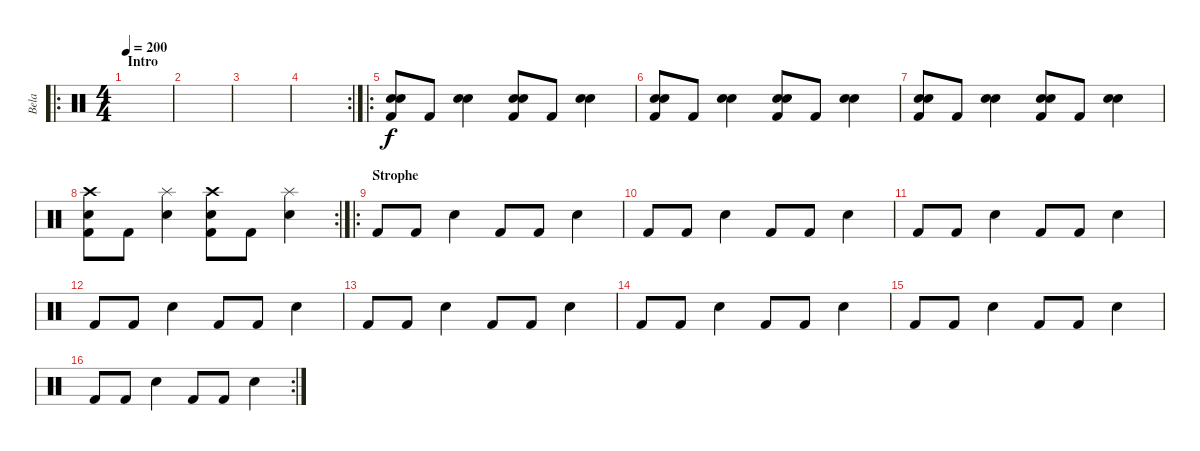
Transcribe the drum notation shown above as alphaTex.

\track ("Bela" "Bela") {instrument percussion}
\staff {score}
\articulation defaults
\ro
\ts (4 4)
\section ("" "Intro")
\tempo 200
\clef neutral
\ks c
|
|
|
\rc 2
|
\ro
("Electric Snare (hit)" "Snare (hit) 2" "Kick (hit) 2").8 "Kick (hit) 2".8 ("Electric Snare (hit)" "Snare (hit) 2").4 ("Electric Snare (hit)" "Snare (hit) 2" "Kick (hit) 2").8 "Kick (hit) 2".8 ("Electric Snare (hit)" "Snare (hit) 2").4 |
("Electric Snare (hit)" "Snare (hit) 2" "Kick (hit) 2").8 "Kick (hit) 2".8 ("Electric Snare (hit)" "Snare (hit) 2").4 ("Electric Snare (hit)" "Snare (hit) 2" "Kick (hit) 2").8 "Kick (hit) 2".8 ("Electric Snare (hit)" "Snare (hit) 2").4 |
("Electric Snare (hit)" "Snare (hit) 2" "Kick (hit) 2").8 "Kick (hit) 2".8 ("Electric Snare (hit)" "Snare (hit) 2").4 ("Electric Snare (hit)" "Snare (hit) 2" "Kick (hit) 2").8 "Kick (hit) 2".8 ("Electric Snare (hit)" "Snare (hit) 2").4 |
\rc 2
("Crash high (hit)" "Electric Snare (hit)" "Kick (hit) 2").8 "Kick (hit) 2".8 ("Splash (hit)" "Electric Snare (hit)").4 ("Crash high (hit)" "Electric Snare (hit)" "Kick (hit) 2").8 "Kick (hit) 2".8 ("Splash (hit)" "Electric Snare (hit)").4 |
\ro
\section ("" "Strophe")
"Kick (hit) 2".8 "Kick (hit) 2".8 "Snare (hit) 2".4 "Kick (hit) 2".8 "Kick (hit) 2".8 "Snare (hit) 2".4 |
"Kick (hit) 2".8 "Kick (hit) 2".8 "Snare (hit) 2".4 "Kick (hit) 2".8 "Kick (hit) 2".8 "Snare (hit) 2".4 |
"Kick (hit) 2".8 "Kick (hit) 2".8 "Snare (hit) 2".4 "Kick (hit) 2".8 "Kick (hit) 2".8 "Snare (hit) 2".4 |
"Kick (hit) 2".8 "Kick (hit) 2".8 "Snare (hit) 2".4 "Kick (hit) 2".8 "Kick (hit) 2".8 "Snare (hit) 2".4 |
"Kick (hit) 2".8 "Kick (hit) 2".8 "Snare (hit) 2".4 "Kick (hit) 2".8 "Kick (hit) 2".8 "Snare (hit) 2".4 |
"Kick (hit) 2".8 "Kick (hit) 2".8 "Snare (hit) 2".4 "Kick (hit) 2".8 "Kick (hit) 2".8 "Snare (hit) 2".4 |
"Kick (hit) 2".8 "Kick (hit) 2".8 "Snare (hit) 2".4 "Kick (hit) 2".8 "Kick (hit) 2".8 "Snare (hit) 2".4 |
\rc 2 "Kick (hit) 2".8 "Kick (hit) 2".8 "Snare (hit) 2".4 "Kick (hit) 2".8 "Kick (hit) 2".8 "Snare (hit) 2".4
